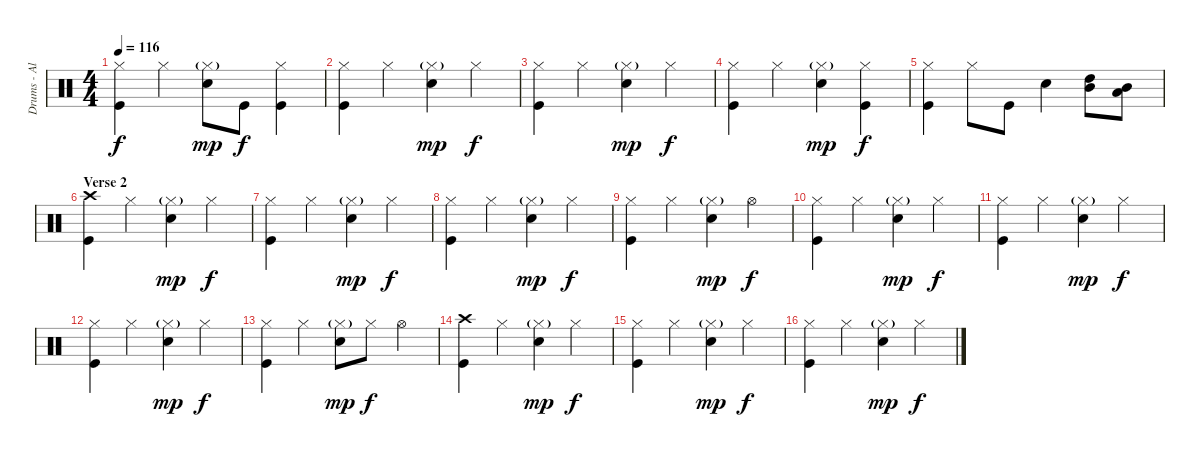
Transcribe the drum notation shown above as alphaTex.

\track ("Drums - Alex Holzwarth" "Drums - Al") {instrument percussion}
\staff {score}
\articulation defaults
\ts (4 4)
\tempo 116
\clef neutral
\ks c
("Hi-Hat (closed)" "Kick (hit)").4{dy f} "Hi-Hat (closed)".4 ("Electric Snare (hit)" "Hi-Hat (closed)"{g}).8{dy mp} "Kick (hit)".8{dy f} ("Hi-Hat (closed)" "Kick (hit)").4 |
("Hi-Hat (closed)" "Kick (hit)").4 "Hi-Hat (closed)".4 ("Electric Snare (hit)" "Hi-Hat (closed)"{g}).4{dy mp} "Hi-Hat (closed)".4{dy f} |
("Hi-Hat (closed)" "Kick (hit)").4 "Hi-Hat (closed)".4 ("Snare (hit) 2" "Hi-Hat (closed)"{g}).4{dy mp} "Hi-Hat (closed)".4{dy f} |
("Hi-Hat (closed)" "Kick (hit)").4 "Hi-Hat (closed)".4 ("Snare (hit) 2" "Hi-Hat (closed)"{g}).4{dy mp} ("Hi-Hat (closed)" "Kick (hit)").4{dy f} |
("Hi-Hat (closed)" "Kick (hit)").4 "Hi-Hat (closed)".8 "Kick (hit)".8 "Snare (hit) 2".4 ("Mid Tom (hit)" "High Tom (hit)").8 ("Low Tom (hit)" "Mid Tom (hit)").8 |
\section ("" "Verse 2")
("Crash high (hit)" "Kick (hit)").4 "Hi-Hat (closed)".4 ("Snare (hit) 2" "Hi-Hat (closed)"{g}).4{dy mp} "Hi-Hat (closed)".4{dy f} |
("Hi-Hat (closed)" "Kick (hit)").4 "Hi-Hat (closed)".4 ("Electric Snare (hit)" "Hi-Hat (closed)"{g}).4{dy mp} "Hi-Hat (closed)".4{dy f} |
("Hi-Hat (closed)" "Kick (hit)").4 "Hi-Hat (closed)".4 ("Electric Snare (hit)" "Hi-Hat (closed)"{g}).4{dy mp} "Hi-Hat (closed)".4{dy f} |
("Hi-Hat (closed)" "Kick (hit)").4 "Hi-Hat (closed)".4 ("Electric Snare (hit)" "Hi-Hat (closed)"{g}).4{dy mp} "Hi-Hat (open)".4{dy f} |
("Hi-Hat (closed)" "Kick (hit)").4 "Hi-Hat (closed)".4 ("Electric Snare (hit)" "Hi-Hat (closed)"{g}).4{dy mp} "Hi-Hat (closed)".4{dy f} |
("Hi-Hat (closed)" "Kick (hit)").4 "Hi-Hat (closed)".4 ("Electric Snare (hit)" "Hi-Hat (closed)"{g}).4{dy mp} "Hi-Hat (closed)".4{dy f} |
("Hi-Hat (closed)" "Kick (hit)").4 "Hi-Hat (closed)".4 ("Electric Snare (hit)" "Hi-Hat (closed)"{g}).4{dy mp} "Hi-Hat (closed)".4{dy f} |
("Hi-Hat (closed)" "Kick (hit)").4 "Hi-Hat (closed)".4 ("Electric Snare (hit)" "Hi-Hat (closed)"{g}).8{dy mp} "Hi-Hat (closed)".8{dy f} "Hi-Hat (open)".4 |
("Crash high (hit)" "Kick (hit)").4 "Hi-Hat (closed)".4 ("Snare (hit) 2" "Hi-Hat (closed)"{g}).4{dy mp} "Hi-Hat (closed)".4{dy f} |
("Hi-Hat (closed)" "Kick (hit)").4 "Hi-Hat (closed)".4 ("Electric Snare (hit)" "Hi-Hat (closed)"{g}).4{dy mp} "Hi-Hat (closed)".4{dy f} |
("Hi-Hat (closed)" "Kick (hit)").4 "Hi-Hat (closed)".4 ("Electric Snare (hit)" "Hi-Hat (closed)"{g}).4{dy mp} "Hi-Hat (closed)".4{dy f}
